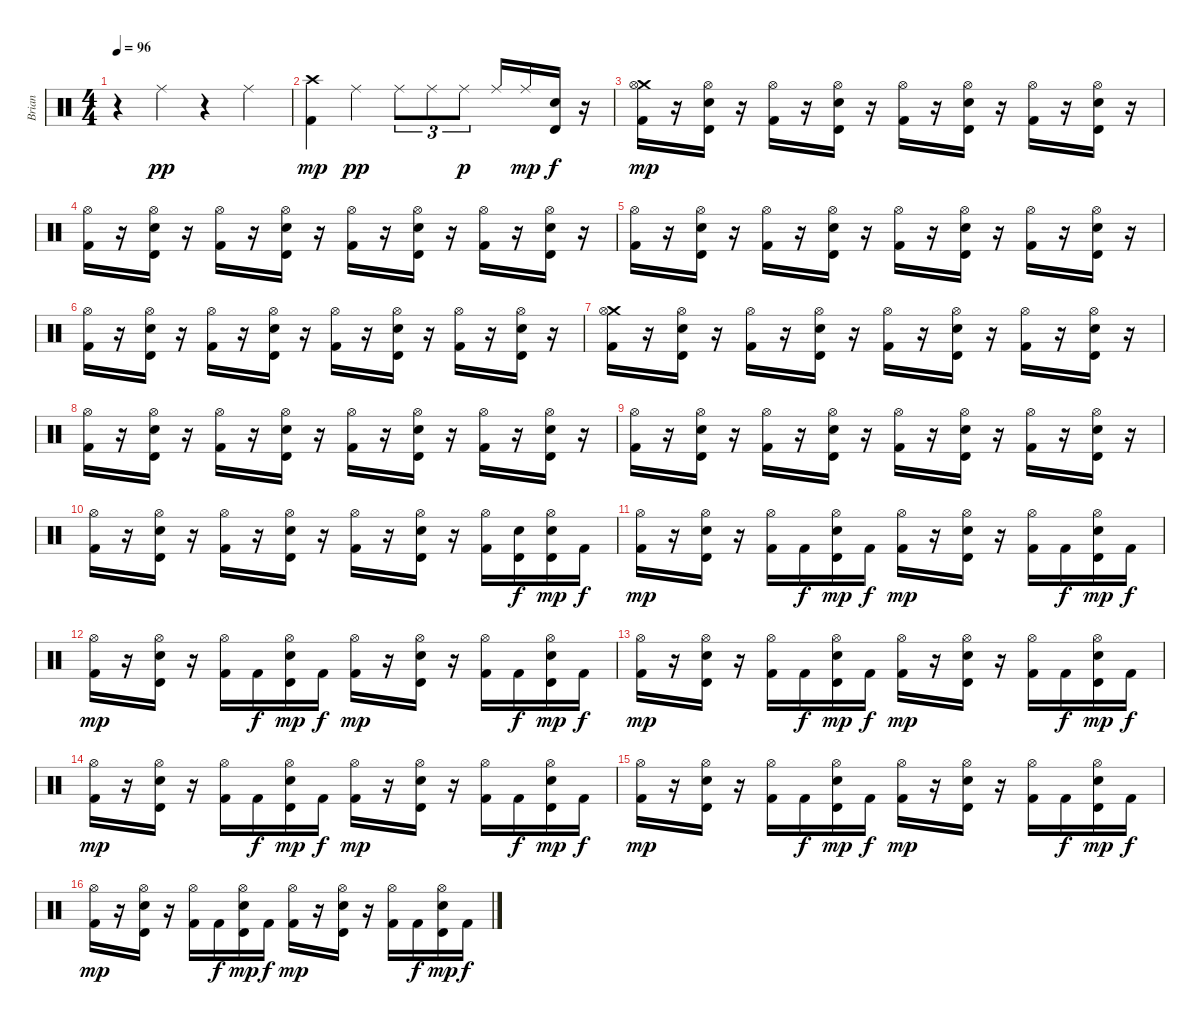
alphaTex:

\track ("Brian" "Brian") {instrument percussion}
\staff {score}
\articulation defaults
\ts (4 4)
\tempo 96
\clef neutral
\ks c
r.4{dy pp} "Ride (middle)".4 r.4 "Ride (middle)".4 |
("Crash high (hit)" "Kick (hit) 2").4{dy mp} "Ride (middle)".4{dy pp} "Ride (middle)".8{tu (3 2)} "Ride (middle)".8{tu (3 2)} "Ride (middle)".8{tu (3 2) dy p} "Ride (middle)".16 "Ride (middle)".16{dy mp} ("Timbale high (hit)" "Electric Snare (hit)").16{dy f} r.16 |
("Crash medium (hit)" "Hi-Hat (open)" "Kick (hit) 2").16{dy mp} r.16 ("Hi-Hat (open)" "Timbale high (hit)" "Electric Snare (hit)").16 r.16 ("Hi-Hat (open)" "Kick (hit) 2").16 r.16 ("Hi-Hat (open)" "Timbale high (hit)" "Electric Snare (hit)").16 r.16 ("Hi-Hat (open)" "Kick (hit) 2").16 r.16 ("Hi-Hat (open)" "Timbale high (hit)" "Electric Snare (hit)").16 r.16 ("Hi-Hat (open)" "Kick (hit) 2").16 r.16 ("Hi-Hat (open)" "Timbale high (hit)" "Electric Snare (hit)").16 r.16 |
("Hi-Hat (open)" "Kick (hit) 2").16 r.16 ("Hi-Hat (open)" "Timbale high (hit)" "Electric Snare (hit)").16 r.16 ("Hi-Hat (open)" "Kick (hit) 2").16 r.16 ("Hi-Hat (open)" "Timbale high (hit)" "Electric Snare (hit)").16 r.16 ("Hi-Hat (open)" "Kick (hit) 2").16 r.16 ("Hi-Hat (open)" "Timbale high (hit)" "Electric Snare (hit)").16 r.16 ("Hi-Hat (open)" "Kick (hit) 2").16 r.16 ("Hi-Hat (open)" "Timbale high (hit)" "Electric Snare (hit)").16 r.16 |
("Hi-Hat (open)" "Kick (hit) 2").16 r.16 ("Hi-Hat (open)" "Timbale high (hit)" "Electric Snare (hit)").16 r.16 ("Hi-Hat (open)" "Kick (hit) 2").16 r.16 ("Hi-Hat (open)" "Timbale high (hit)" "Electric Snare (hit)").16 r.16 ("Hi-Hat (open)" "Kick (hit) 2").16 r.16 ("Hi-Hat (open)" "Timbale high (hit)" "Electric Snare (hit)").16 r.16 ("Hi-Hat (open)" "Kick (hit) 2").16 r.16 ("Hi-Hat (open)" "Timbale high (hit)" "Electric Snare (hit)").16 r.16 |
("Hi-Hat (open)" "Kick (hit) 2").16 r.16 ("Hi-Hat (open)" "Timbale high (hit)" "Electric Snare (hit)").16 r.16 ("Hi-Hat (open)" "Kick (hit) 2").16 r.16 ("Hi-Hat (open)" "Timbale high (hit)" "Electric Snare (hit)").16 r.16 ("Hi-Hat (open)" "Kick (hit) 2").16 r.16 ("Hi-Hat (open)" "Timbale high (hit)" "Electric Snare (hit)").16 r.16 ("Hi-Hat (open)" "Kick (hit) 2").16 r.16 ("Hi-Hat (open)" "Timbale high (hit)" "Electric Snare (hit)").16 r.16 |
("Crash medium (hit)" "Hi-Hat (open)" "Kick (hit) 2").16 r.16 ("Hi-Hat (open)" "Timbale high (hit)" "Electric Snare (hit)").16 r.16 ("Hi-Hat (open)" "Kick (hit) 2").16 r.16 ("Hi-Hat (open)" "Timbale high (hit)" "Electric Snare (hit)").16 r.16 ("Hi-Hat (open)" "Kick (hit) 2").16 r.16 ("Hi-Hat (open)" "Timbale high (hit)" "Electric Snare (hit)").16 r.16 ("Hi-Hat (open)" "Kick (hit) 2").16 r.16 ("Hi-Hat (open)" "Timbale high (hit)" "Electric Snare (hit)").16 r.16 |
("Hi-Hat (open)" "Kick (hit) 2").16 r.16 ("Hi-Hat (open)" "Timbale high (hit)" "Electric Snare (hit)").16 r.16 ("Hi-Hat (open)" "Kick (hit) 2").16 r.16 ("Hi-Hat (open)" "Timbale high (hit)" "Electric Snare (hit)").16 r.16 ("Hi-Hat (open)" "Kick (hit) 2").16 r.16 ("Hi-Hat (open)" "Timbale high (hit)" "Electric Snare (hit)").16 r.16 ("Hi-Hat (open)" "Kick (hit) 2").16 r.16 ("Hi-Hat (open)" "Timbale high (hit)" "Electric Snare (hit)").16 r.16 |
("Hi-Hat (open)" "Kick (hit) 2").16 r.16 ("Hi-Hat (open)" "Timbale high (hit)" "Electric Snare (hit)").16 r.16 ("Hi-Hat (open)" "Kick (hit) 2").16 r.16 ("Hi-Hat (open)" "Timbale high (hit)" "Electric Snare (hit)").16 r.16 ("Hi-Hat (open)" "Kick (hit) 2").16 r.16 ("Hi-Hat (open)" "Timbale high (hit)" "Electric Snare (hit)").16 r.16 ("Hi-Hat (open)" "Kick (hit) 2").16 r.16 ("Hi-Hat (open)" "Timbale high (hit)" "Electric Snare (hit)").16 r.16 |
("Hi-Hat (open)" "Kick (hit) 2").16 r.16 ("Hi-Hat (open)" "Timbale high (hit)" "Electric Snare (hit)").16 r.16 ("Hi-Hat (open)" "Kick (hit) 2").16 r.16 ("Hi-Hat (open)" "Timbale high (hit)" "Electric Snare (hit)").16 r.16 ("Hi-Hat (open)" "Kick (hit) 2").16 r.16 ("Hi-Hat (open)" "Timbale high (hit)" "Electric Snare (hit)").16 r.16 ("Hi-Hat (open)" "Kick (hit) 2").16 ("Timbale high (hit)" "Electric Snare (hit)").16{dy f} ("Hi-Hat (open)" "Timbale high (hit)" "Electric Snare (hit)").16{dy mp} "Kick (hit) 2".16{dy f} |
("Hi-Hat (open)" "Kick (hit) 2").16{dy mp} r.16 ("Hi-Hat (open)" "Timbale high (hit)" "Electric Snare (hit)").16 r.16 ("Hi-Hat (open)" "Kick (hit) 2").16 "Kick (hit) 2".16{dy f} ("Hi-Hat (open)" "Timbale high (hit)" "Electric Snare (hit)").16{dy mp} "Kick (hit) 2".16{dy f} ("Hi-Hat (open)" "Kick (hit) 2").16{dy mp} r.16 ("Hi-Hat (open)" "Timbale high (hit)" "Electric Snare (hit)").16 r.16 ("Hi-Hat (open)" "Kick (hit) 2").16 "Kick (hit) 2".16{dy f} ("Hi-Hat (open)" "Timbale high (hit)" "Electric Snare (hit)").16{dy mp} "Kick (hit) 2".16{dy f} |
("Hi-Hat (open)" "Kick (hit) 2").16{dy mp} r.16 ("Hi-Hat (open)" "Timbale high (hit)" "Electric Snare (hit)").16 r.16 ("Hi-Hat (open)" "Kick (hit) 2").16 "Kick (hit) 2".16{dy f} ("Hi-Hat (open)" "Timbale high (hit)" "Electric Snare (hit)").16{dy mp} "Kick (hit) 2".16{dy f} ("Hi-Hat (open)" "Kick (hit) 2").16{dy mp} r.16 ("Hi-Hat (open)" "Timbale high (hit)" "Electric Snare (hit)").16 r.16 ("Hi-Hat (open)" "Kick (hit) 2").16 "Kick (hit) 2".16{dy f} ("Hi-Hat (open)" "Timbale high (hit)" "Electric Snare (hit)").16{dy mp} "Kick (hit) 2".16{dy f} |
("Hi-Hat (open)" "Kick (hit) 2").16{dy mp} r.16 ("Hi-Hat (open)" "Timbale high (hit)" "Electric Snare (hit)").16 r.16 ("Hi-Hat (open)" "Kick (hit) 2").16 "Kick (hit) 2".16{dy f} ("Hi-Hat (open)" "Timbale high (hit)" "Electric Snare (hit)").16{dy mp} "Kick (hit) 2".16{dy f} ("Hi-Hat (open)" "Kick (hit) 2").16{dy mp} r.16 ("Hi-Hat (open)" "Timbale high (hit)" "Electric Snare (hit)").16 r.16 ("Hi-Hat (open)" "Kick (hit) 2").16 "Kick (hit) 2".16{dy f} ("Hi-Hat (open)" "Timbale high (hit)" "Electric Snare (hit)").16{dy mp} "Kick (hit) 2".16{dy f} |
("Hi-Hat (open)" "Kick (hit) 2").16{dy mp} r.16 ("Hi-Hat (open)" "Timbale high (hit)" "Electric Snare (hit)").16 r.16 ("Hi-Hat (open)" "Kick (hit) 2").16 "Kick (hit) 2".16{dy f} ("Hi-Hat (open)" "Timbale high (hit)" "Electric Snare (hit)").16{dy mp} "Kick (hit) 2".16{dy f} ("Hi-Hat (open)" "Kick (hit) 2").16{dy mp} r.16 ("Hi-Hat (open)" "Timbale high (hit)" "Electric Snare (hit)").16 r.16 ("Hi-Hat (open)" "Kick (hit) 2").16 "Kick (hit) 2".16{dy f} ("Hi-Hat (open)" "Timbale high (hit)" "Electric Snare (hit)").16{dy mp} "Kick (hit) 2".16{dy f} |
("Hi-Hat (open)" "Kick (hit) 2").16{dy mp} r.16 ("Hi-Hat (open)" "Timbale high (hit)" "Electric Snare (hit)").16 r.16 ("Hi-Hat (open)" "Kick (hit) 2").16 "Kick (hit) 2".16{dy f} ("Hi-Hat (open)" "Timbale high (hit)" "Electric Snare (hit)").16{dy mp} "Kick (hit) 2".16{dy f} ("Hi-Hat (open)" "Kick (hit) 2").16{dy mp} r.16 ("Hi-Hat (open)" "Timbale high (hit)" "Electric Snare (hit)").16 r.16 ("Hi-Hat (open)" "Kick (hit) 2").16 "Kick (hit) 2".16{dy f} ("Hi-Hat (open)" "Timbale high (hit)" "Electric Snare (hit)").16{dy mp} "Kick (hit) 2".16{dy f} |
("Hi-Hat (open)" "Kick (hit) 2").16{dy mp} r.16 ("Hi-Hat (open)" "Timbale high (hit)" "Electric Snare (hit)").16 r.16 ("Hi-Hat (open)" "Kick (hit) 2").16 "Kick (hit) 2".16{dy f} ("Hi-Hat (open)" "Timbale high (hit)" "Electric Snare (hit)").16{dy mp} "Kick (hit) 2".16{dy f} ("Hi-Hat (open)" "Kick (hit) 2").16{dy mp} r.16 ("Hi-Hat (open)" "Timbale high (hit)" "Electric Snare (hit)").16 r.16 ("Hi-Hat (open)" "Kick (hit) 2").16 "Kick (hit) 2".16{dy f} ("Hi-Hat (open)" "Timbale high (hit)" "Electric Snare (hit)").16{dy mp} "Kick (hit) 2".16{dy f}
